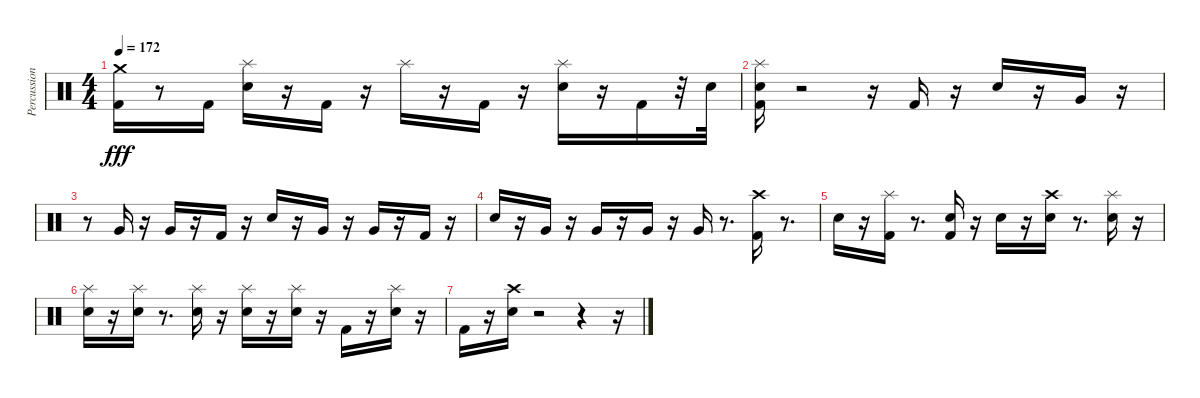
\track ("Percussion" "Percussion") {instrument percussion}
\staff {score}
\articulation defaults
\ts (4 4)
\tempo 172
\clef neutral
\ks c
("Kick (hit) 2" "Crash medium (hit)").16{dy fff} r.8 "Kick (hit) 2".16 ("Snare (hit) 2" "Splash (hit)").16 r.16 "Kick (hit) 2".16 r.16 "Splash (hit)".16 r.16 "Kick (hit) 2".16 r.16 ("Splash (hit)" "Snare (hit) 2").16 r.16 "Kick (hit) 2".16 r.32 "Snare (hit) 2".32 |
("Snare (hit) 2" "Splash (hit)" "Kick (hit) 2").16 r.2 r.16 "Kick (hit) 2".16 r.16 "Snare (hit) 2".16 r.16 "Very Low Tom (hit)".16 r.16 |
r.8 "Very Low Tom (hit)".16 r.16 "Very Low Tom (hit)".16 r.16 "Kick (hit) 2".16 r.16 "Snare (hit) 2".16 r.16 "Very Low Tom (hit)".16 r.16 "Very Low Tom (hit)".16 r.16 "Kick (hit) 2".16 r.16 |
"Snare (hit) 2".16 r.16 "Very Low Tom (hit)".16 r.16 "Very Low Tom (hit)".16 r.16 "Very Low Tom (hit)".16 r.16 "Very Low Tom (hit)".16 r.8{d} ("Kick (hit) 2" "Crash high (hit)").16 r.8{d} |
"Snare (hit) 2".16 r.16 ("Splash (hit)" "Kick (hit) 2").16 r.8{d} ("Kick (hit) 2" "Snare (hit) 2").16 r.16 "Snare (hit) 2".16 r.16 ("Crash high (hit)" "Snare (hit) 2").16 r.8{d} ("Snare (hit) 2" "Splash (hit)").16 r.16 |
("Splash (hit)" "Snare (hit) 2").16 r.16 ("Splash (hit)" "Snare (hit) 2").16 r.8{d} ("Splash (hit)" "Snare (hit) 2").16 r.16 ("Splash (hit)" "Snare (hit) 2").16 r.16 ("Splash (hit)" "Snare (hit) 2").16 r.16 "Kick (hit) 2".16 r.16 ("Splash (hit)" "Snare (hit) 2").16 r.16 |
"Kick (hit) 2".16 r.16 ("Crash high (hit)" "Snare (hit) 2").16 r.2 r.4 r.16
